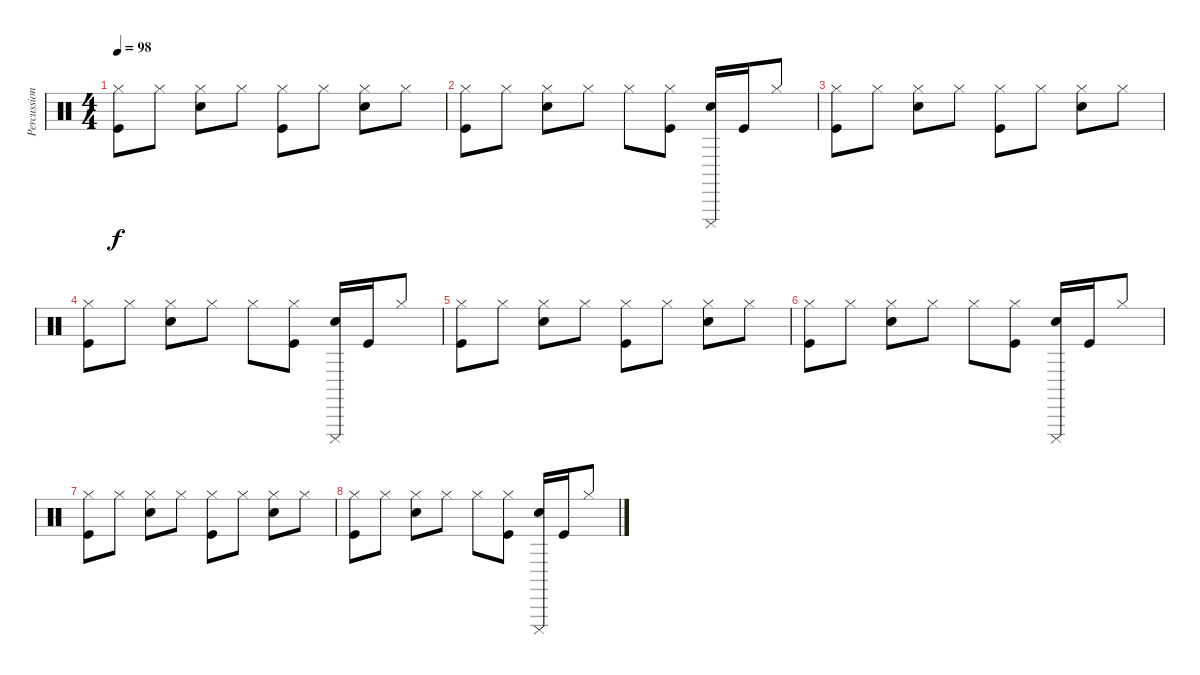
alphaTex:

\track ("Percussion" "Percussion") {instrument percussion}
\staff {score}
\articulation defaults
\ts (4 4)
\tempo 98
\clef neutral
\ks c
("Kick (hit)" "Hi-Hat (closed)").8{dy f} "Hi-Hat (closed)".8 ("Electric Snare (hit)" "Hi-Hat (closed)").8 "Hi-Hat (closed)".8 ("Kick (hit)" "Hi-Hat (closed)").8 "Hi-Hat (closed)".8 ("Electric Snare (hit)" "Hi-Hat (closed)").8 "Hi-Hat (closed)".8 |
("Kick (hit)" "Hi-Hat (closed)").8 "Hi-Hat (closed)".8 ("Electric Snare (hit)" "Hi-Hat (closed)").8 "Hi-Hat (closed)".8 "Hi-Hat (closed)".8 ("Kick (hit)" "Hi-Hat (closed)").8 ("Electric Snare (hit)" "Cuica (mute)").16 "Kick (hit)".16 "Hi-Hat (closed)".8 |
("Kick (hit)" "Hi-Hat (closed)").8 "Hi-Hat (closed)".8 ("Electric Snare (hit)" "Hi-Hat (closed)").8 "Hi-Hat (closed)".8 ("Kick (hit)" "Hi-Hat (closed)").8 "Hi-Hat (closed)".8 ("Electric Snare (hit)" "Hi-Hat (closed)").8 "Hi-Hat (closed)".8 |
("Kick (hit)" "Hi-Hat (closed)").8 "Hi-Hat (closed)".8 ("Electric Snare (hit)" "Hi-Hat (closed)").8 "Hi-Hat (closed)".8 "Hi-Hat (closed)".8 ("Kick (hit)" "Hi-Hat (closed)").8 ("Electric Snare (hit)" "Cuica (mute)").16 "Kick (hit)".16 "Hi-Hat (closed)".8 |
("Kick (hit)" "Hi-Hat (closed)").8 "Hi-Hat (closed)".8 ("Electric Snare (hit)" "Hi-Hat (closed)").8 "Hi-Hat (closed)".8 ("Kick (hit)" "Hi-Hat (closed)").8 "Hi-Hat (closed)".8 ("Electric Snare (hit)" "Hi-Hat (closed)").8 "Hi-Hat (closed)".8 |
("Kick (hit)" "Hi-Hat (closed)").8 "Hi-Hat (closed)".8 ("Electric Snare (hit)" "Hi-Hat (closed)").8 "Hi-Hat (closed)".8 "Hi-Hat (closed)".8 ("Kick (hit)" "Hi-Hat (closed)").8 ("Electric Snare (hit)" "Cuica (mute)").16 "Kick (hit)".16 "Hi-Hat (closed)".8 |
("Kick (hit)" "Hi-Hat (closed)").8 "Hi-Hat (closed)".8 ("Electric Snare (hit)" "Hi-Hat (closed)").8 "Hi-Hat (closed)".8 ("Kick (hit)" "Hi-Hat (closed)").8 "Hi-Hat (closed)".8 ("Electric Snare (hit)" "Hi-Hat (closed)").8 "Hi-Hat (closed)".8 |
("Kick (hit)" "Hi-Hat (closed)").8 "Hi-Hat (closed)".8 ("Electric Snare (hit)" "Hi-Hat (closed)").8 "Hi-Hat (closed)".8 "Hi-Hat (closed)".8 ("Kick (hit)" "Hi-Hat (closed)").8 ("Electric Snare (hit)" "Cuica (mute)").16 "Kick (hit)".16 "Hi-Hat (closed)".8
